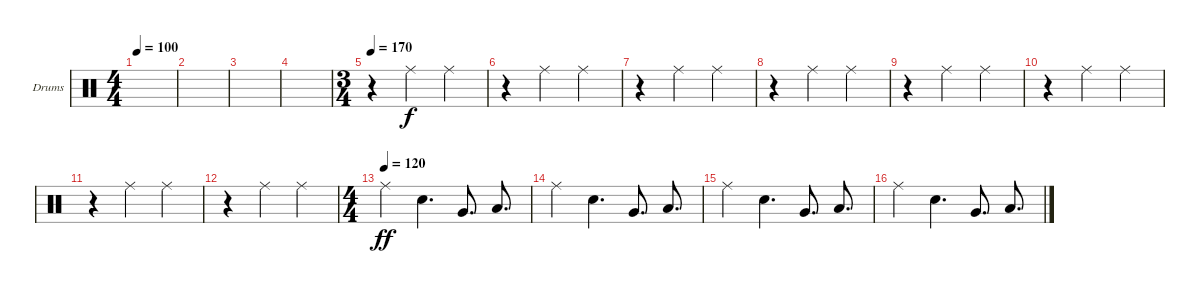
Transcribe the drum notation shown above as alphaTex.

\defaultSystemsLayout 4
\bracketExtendMode groupsimilarinstruments
\firstSystemTrackNameOrientation horizontal
\otherSystemsTrackNameOrientation horizontal
\track ("Drumkit" "Drums") {instrument percussion}
\staff {score}
\articulation defaults
\ts (4 4)
\tempo 100
\clef neutral
\ks c
|
|
|
|
\ts (3 4)
\tempo 170
r.4 "Ride (middle)".4 "Ride (middle)".4 |
r.4 "Ride (middle)".4 "Ride (middle)".4 |
r.4 "Ride (middle)".4 "Ride (middle)".4 |
r.4 "Ride (middle)".4 "Ride (middle)".4 |
r.4 "Ride (middle)".4 "Ride (middle)".4 |
r.4 "Ride (middle)".4 "Ride (middle)".4 |
r.4 "Ride (middle)".4 "Ride (middle)".4 |
r.4 "Ride (middle)".4 "Ride (middle)".4 |
\ts (4 4)
\tempo (120)
"Ride (middle)".4{dy ff} "Snare (hit) 2".4{d} "Very Low Tom (hit)".8{d} "Low Tom (hit)".8{d} |
"Ride (middle)".4 "Snare (hit) 2".4{d} "Very Low Tom (hit)".8{d} "Low Tom (hit)".8{d} |
"Ride (middle)".4 "Snare (hit) 2".4{d} "Very Low Tom (hit)".8{d} "Low Tom (hit)".8{d} |
"Ride (middle)".4 "Snare (hit) 2".4{d} "Very Low Tom (hit)".8{d} "Low Tom (hit)".8{d}
